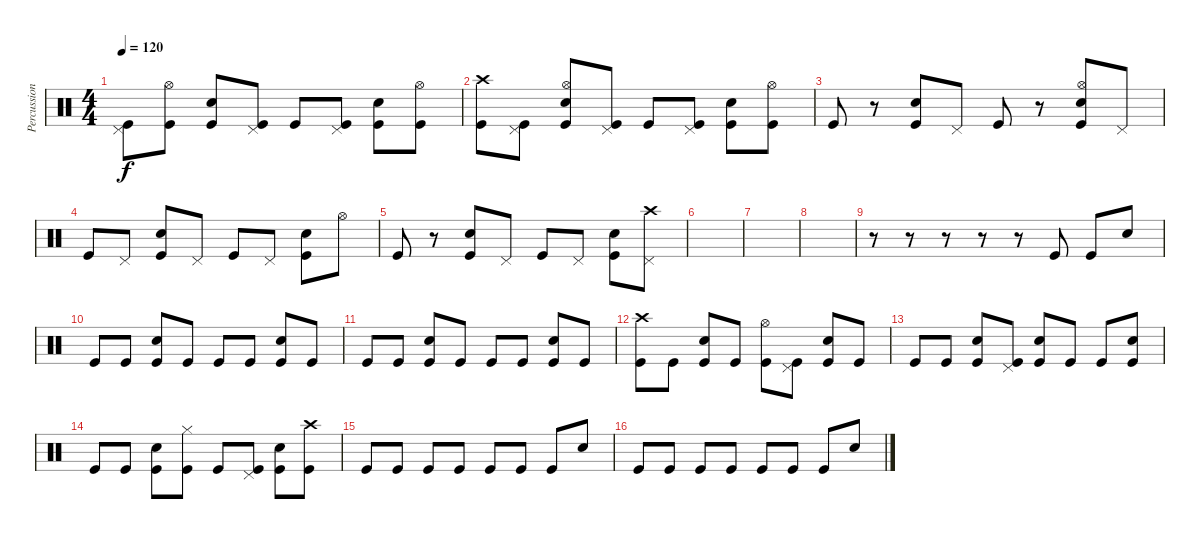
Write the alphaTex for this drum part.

\track ("Percussion" "Percussion") {instrument percussion}
\staff {score}
\articulation defaults
\ts (4 4)
\tempo 120
\clef neutral
\ks c
("Pedal Hi-Hat (hit)" "Kick (hit)").8{dy f} ("Hi-Hat (open)" "Kick (hit)").8 ("Snare (hit) 2" "Kick (hit)").8 ("Pedal Hi-Hat (hit)" "Kick (hit)").8 "Kick (hit)".8 ("Pedal Hi-Hat (hit)" "Kick (hit)").8 ("Snare (hit) 2" "Kick (hit)").8 ("Hi-Hat (open)" "Kick (hit)").8 |
("Crash high (hit)" "Kick (hit)").8 ("Pedal Hi-Hat (hit)" "Kick (hit)").8 ("Hi-Hat (open)" "Snare (hit) 2" "Kick (hit)").8 ("Pedal Hi-Hat (hit)" "Kick (hit)").8 "Kick (hit)".8 ("Pedal Hi-Hat (hit)" "Kick (hit)").8 ("Snare (hit) 2" "Kick (hit)").8 ("Hi-Hat (open)" "Kick (hit)").8 |
"Kick (hit)".8 r.8 ("Electric Snare (hit)" "Kick (hit)").8 "Pedal Hi-Hat (hit)".8 "Kick (hit)".8 r.8 ("Hi-Hat (open)" "Snare (hit) 2" "Kick (hit)").8 "Pedal Hi-Hat (hit)".8 |
"Kick (hit)".8 "Pedal Hi-Hat (hit)".8 ("Snare (hit) 2" "Kick (hit)").8 "Pedal Hi-Hat (hit)".8 "Kick (hit)".8 "Pedal Hi-Hat (hit)".8 ("Snare (hit) 2" "Kick (hit)").8 "Hi-Hat (open)".8 |
"Kick (hit)".8 r.8 ("Snare (hit) 2" "Kick (hit)").8 "Pedal Hi-Hat (hit)".8 "Kick (hit)".8 "Pedal Hi-Hat (hit)".8 ("Snare (hit) 2" "Kick (hit)").8 ("Crash high (hit)" "Pedal Hi-Hat (hit)").8 |
|
|
|
r.8 r.8 r.8 r.8 r.8 "Kick (hit)".8 "Kick (hit)".8 "Electric Snare (hit)".8 |
"Kick (hit)".8 "Kick (hit)".8 ("Electric Snare (hit)" "Kick (hit)").8 "Kick (hit)".8 "Kick (hit)".8 "Kick (hit)".8 ("Electric Snare (hit)" "Kick (hit)").8 "Kick (hit)".8 |
"Kick (hit)".8 "Kick (hit)".8 ("Electric Snare (hit)" "Kick (hit)").8 "Kick (hit)".8 "Kick (hit)".8 "Kick (hit)".8 ("Electric Snare (hit)" "Kick (hit)").8 "Kick (hit)".8 |
("Crash high (hit)" "Kick (hit)").8 "Kick (hit)".8 ("Snare (hit) 2" "Kick (hit)").8 "Kick (hit)".8 ("Hi-Hat (open)" "Kick (hit)").8 ("Pedal Hi-Hat (hit)" "Kick (hit)").8 ("Electric Snare (hit)" "Kick (hit)").8 "Kick (hit)".8 |
"Kick (hit)".8 "Kick (hit)".8 ("Electric Snare (hit)" "Kick (hit)").8 ("Pedal Hi-Hat (hit)" "Kick (hit)").8 ("Electric Snare (hit)" "Kick (hit)").8 "Kick (hit)".8 "Kick (hit)".8 ("Electric Snare (hit)" "Kick (hit)").8 |
"Kick (hit)".8 "Kick (hit)".8 ("Electric Snare (hit)" "Kick (hit)").8 ("Hi-Hat (closed)" "Kick (hit)").8 "Kick (hit)".8 ("Pedal Hi-Hat (hit)" "Kick (hit)").8 ("Electric Snare (hit)" "Kick (hit)").8 ("Crash high (hit)" "Kick (hit)").8 |
"Kick (hit)".8 "Kick (hit)".8 "Kick (hit)".8 "Kick (hit)".8 "Kick (hit)".8 "Kick (hit)".8 "Kick (hit)".8 "Electric Snare (hit)".8 |
"Kick (hit)".8 "Kick (hit)".8 "Kick (hit)".8 "Kick (hit)".8 "Kick (hit)".8 "Kick (hit)".8 "Kick (hit)".8 "Electric Snare (hit)".8
